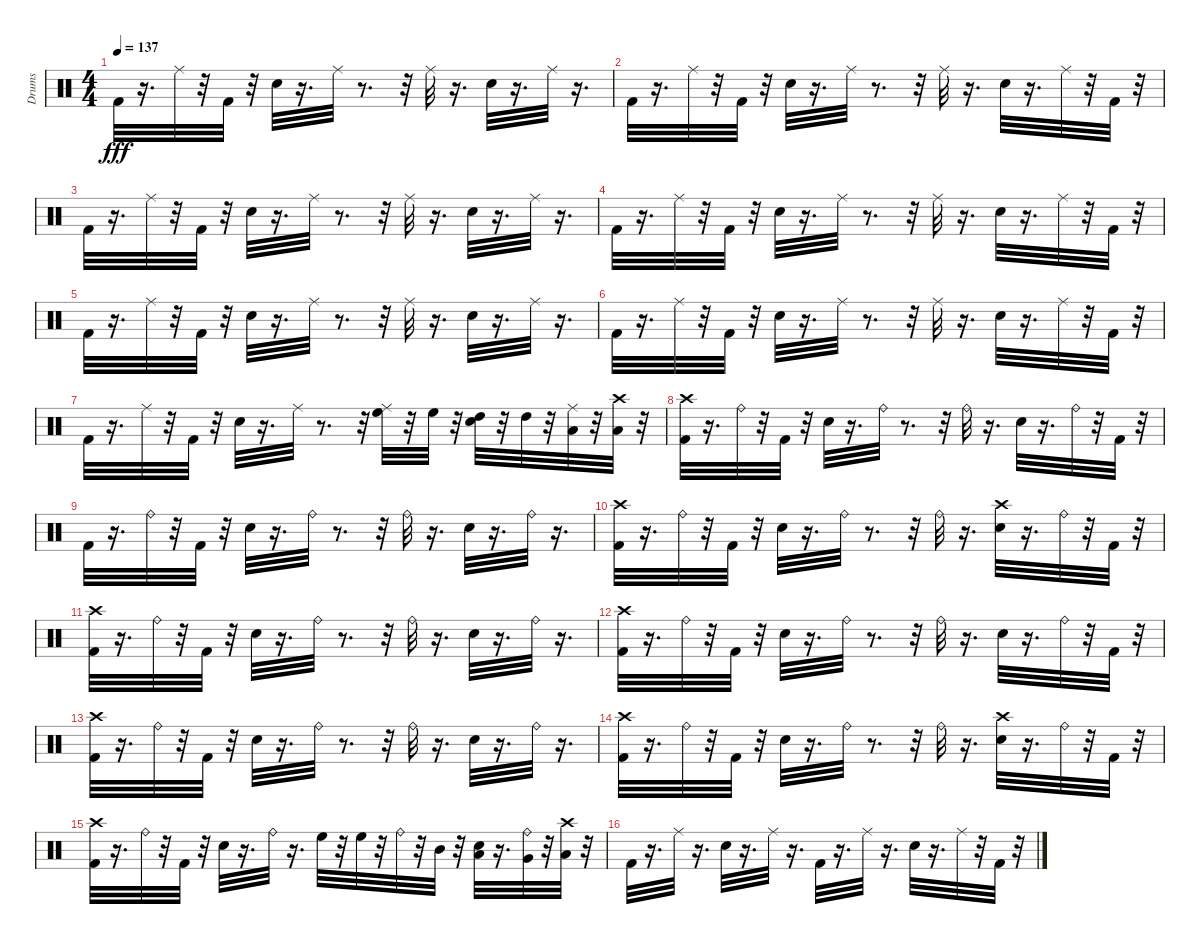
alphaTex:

\track ("Drums" "Drums") {instrument percussion}
\staff {score}
\articulation defaults
\ts (4 4)
\tempo 137
\clef neutral
\ks c "Kick (hit) 2".32{dy fff}
r.16{d} "Ride (middle)".32 r.32 "Kick (hit) 2".32 r.32 "Snare (hit) 2".32 r.16{d} "Ride (middle)".32 r.8{d} r.32 "Ride (middle)".32 r.16{d} "Snare (hit) 2".32 r.16{d} "Ride (middle)".32 r.16{d} |
"Kick (hit) 2".32 r.16{d} "Ride (middle)".32 r.32 "Kick (hit) 2".32 r.32 "Snare (hit) 2".32 r.16{d} "Ride (middle)".32 r.8{d} r.32 "Ride (middle)".32 r.16{d} "Snare (hit) 2".32 r.16{d} "Ride (middle)".32 r.32 "Kick (hit) 2".32 r.32 |
"Kick (hit) 2".32 r.16{d} "Ride (middle)".32 r.32 "Kick (hit) 2".32 r.32 "Snare (hit) 2".32 r.16{d} "Ride (middle)".32 r.8{d} r.32 "Ride (middle)".32 r.16{d} "Snare (hit) 2".32 r.16{d} "Ride (middle)".32 r.16{d} |
"Kick (hit) 2".32 r.16{d} "Ride (middle)".32 r.32 "Kick (hit) 2".32 r.32 "Snare (hit) 2".32 r.16{d} "Ride (middle)".32 r.8{d} r.32 "Ride (middle)".32 r.16{d} "Snare (hit) 2".32 r.16{d} "Ride (middle)".32 r.32 "Kick (hit) 2".32 r.32 |
"Kick (hit) 2".32 r.16{d} "Ride (middle)".32 r.32 "Kick (hit) 2".32 r.32 "Snare (hit) 2".32 r.16{d} "Ride (middle)".32 r.8{d} r.32 "Ride (middle)".32 r.16{d} "Snare (hit) 2".32 r.16{d} "Ride (middle)".32 r.16{d} |
"Kick (hit) 2".32 r.16{d} "Ride (middle)".32 r.32 "Kick (hit) 2".32 r.32 "Snare (hit) 2".32 r.16{d} "Ride (middle)".32 r.8{d} r.32 "Ride (middle)".32 r.16{d} "Snare (hit) 2".32 r.16{d} "Ride (middle)".32 r.32 "Kick (hit) 2".32 r.32 |
"Kick (hit) 2".32 r.16{d} "Ride (middle)".32 r.32 "Kick (hit) 2".32 r.32 "Snare (hit) 2".32 r.16{d} "Ride (middle)".32 r.8{d} r.32 ("Ride (middle)" "High Floor Tom (hit)").32 r.32 "High Floor Tom (hit)".32 r.32 ("High Tom (hit)" "Snare (hit) 2").32 r.32 "High Tom (hit)".32 r.32 ("Low Tom (hit)" "Ride (middle)").32 r.32 ("Crash high (hit)" "Low Tom (hit)").32 r.32 |
("Kick (hit) 2" "Crash high (hit)").32 r.16{d} "Ride (bell)".32 r.32 "Kick (hit) 2".32 r.32 "Snare (hit) 2".32 r.16{d} "Ride (bell)".32 r.8{d} r.32 "Ride (bell)".32 r.16{d} "Snare (hit) 2".32 r.16{d} "Ride (bell)".32 r.32 "Kick (hit) 2".32 r.32 |
"Kick (hit) 2".32 r.16{d} "Ride (bell)".32 r.32 "Kick (hit) 2".32 r.32 "Snare (hit) 2".32 r.16{d} "Ride (bell)".32 r.8{d} r.32 "Ride (bell)".32 r.16{d} "Snare (hit) 2".32 r.16{d} "Ride (bell)".32 r.16{d} |
("Crash high (hit)" "Kick (hit) 2").32 r.16{d} "Ride (bell)".32 r.32 "Kick (hit) 2".32 r.32 "Snare (hit) 2".32 r.16{d} "Ride (bell)".32 r.8{d} r.32 "Ride (bell)".32 r.16{d} ("Snare (hit) 2" "Crash high (hit)").32 r.16{d} "Ride (bell)".32 r.32 "Kick (hit) 2".32 r.32 |
("Crash high (hit)" "Kick (hit) 2").32 r.16{d} "Ride (bell)".32 r.32 "Kick (hit) 2".32 r.32 "Snare (hit) 2".32 r.16{d} "Ride (bell)".32 r.8{d} r.32 "Ride (bell)".32 r.16{d} "Snare (hit) 2".32 r.16{d} "Ride (bell)".32 r.16{d} |
("Crash high (hit)" "Kick (hit) 2").32 r.16{d} "Ride (bell)".32 r.32 "Kick (hit) 2".32 r.32 "Snare (hit) 2".32 r.16{d} "Ride (bell)".32 r.8{d} r.32 "Ride (bell)".32 r.16{d} "Snare (hit) 2".32 r.16{d} "Ride (bell)".32 r.32 "Kick (hit) 2".32 r.32 |
("Crash high (hit)" "Kick (hit) 2").32 r.16{d} "Ride (bell)".32 r.32 "Kick (hit) 2".32 r.32 "Snare (hit) 2".32 r.16{d} "Ride (bell)".32 r.8{d} r.32 "Ride (bell)".32 r.16{d} "Snare (hit) 2".32 r.16{d} "Ride (bell)".32 r.16{d} |
("Crash high (hit)" "Kick (hit) 2").32 r.16{d} "Ride (bell)".32 r.32 "Kick (hit) 2".32 r.32 "Snare (hit) 2".32 r.16{d} "Ride (bell)".32 r.8{d} r.32 "Ride (bell)".32 r.16{d} ("Crash high (hit)" "Snare (hit) 2").32 r.16{d} "Ride (bell)".32 r.32 "Kick (hit) 2".32 r.32 |
("Crash high (hit)" "Kick (hit) 2").32 r.16{d} "Ride (bell)".32 r.32 "Kick (hit) 2".32 r.32 "Snare (hit) 2".32 r.16{d} "Ride (bell)".32 r.16{d} "High Floor Tom (hit)".32 r.32 "High Floor Tom (hit)".32 r.32 "Ride (bell)".32 r.32 "Mid Tom (hit)".32 r.32 ("Low Tom (hit)" "Snare (hit) 2").32 r.16{d} ("Very Low Tom (hit)" "Ride (bell)").32 r.32 ("Crash high (hit)" "Low Floor Tom (hit)").32 r.32 |
"Kick (hit) 2".32 r.16{d} "Ride (middle)".32 r.16{d} "Snare (hit) 2".32 r.16{d} "Ride (middle)".32 r.16{d} "Kick (hit) 2".32 r.16{d} "Ride (middle)".32 r.16{d} "Snare (hit) 2".32 r.16{d} "Ride (middle)".32 r.32 "Kick (hit) 2".32 r.32
